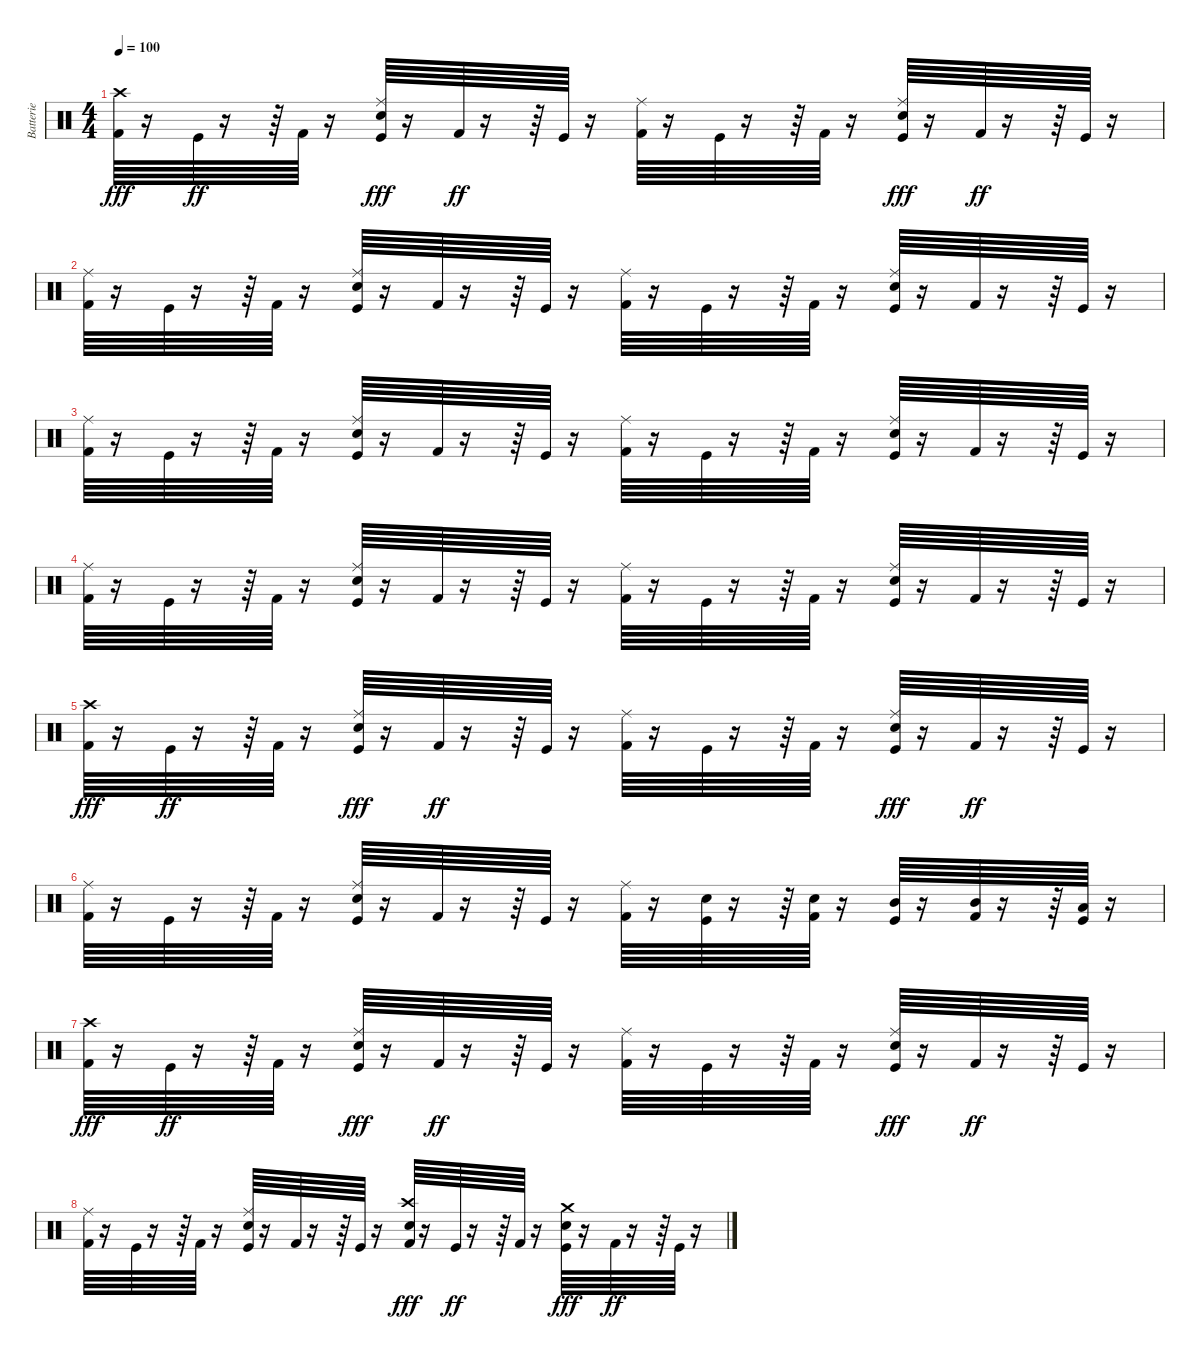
\track ("Batterie" "Batterie") {instrument percussion}
\staff {score}
\articulation defaults
\ts (4 4)
\tempo 100
\clef neutral
\ks c
("Kick (hit) 2" "Crash high (hit)").64{dy fff} r.16 "Kick (hit)".64{dy ff} r.16 r.64 "Kick (hit) 2".64 r.16 ("Kick (hit)" "Ride (middle)" "Electric Snare (hit)").64{dy fff} r.16 "Kick (hit) 2".64{dy ff} r.16 r.64 "Kick (hit)".64 r.16 ("Kick (hit) 2" "Ride (middle)").64 r.16 "Kick (hit)".64 r.16 r.64 "Kick (hit) 2".64 r.16 ("Kick (hit)" "Ride (middle)" "Electric Snare (hit)").64{dy fff} r.16 "Kick (hit) 2".64{dy ff} r.16 r.64 "Kick (hit)".64 r.16 |
("Kick (hit) 2" "Ride (middle)").64 r.16 "Kick (hit)".64 r.16 r.64 "Kick (hit) 2".64 r.16 ("Kick (hit)" "Electric Snare (hit)" "Ride (middle)").64 r.16 "Kick (hit) 2".64 r.16 r.64 "Kick (hit)".64 r.16 ("Kick (hit) 2" "Ride (middle)").64 r.16 "Kick (hit)".64 r.16 r.64 "Kick (hit) 2".64 r.16 ("Kick (hit)" "Electric Snare (hit)" "Ride (middle)").64 r.16 "Kick (hit) 2".64 r.16 r.64 "Kick (hit)".64 r.16 |
("Kick (hit) 2" "Ride (middle)").64 r.16 "Kick (hit)".64 r.16 r.64 "Kick (hit) 2".64 r.16 ("Kick (hit)" "Electric Snare (hit)" "Ride (middle)").64 r.16 "Kick (hit) 2".64 r.16 r.64 "Kick (hit)".64 r.16 ("Kick (hit) 2" "Ride (middle)").64 r.16 "Kick (hit)".64 r.16 r.64 "Kick (hit) 2".64 r.16 ("Kick (hit)" "Electric Snare (hit)" "Ride (middle)").64 r.16 "Kick (hit) 2".64 r.16 r.64 "Kick (hit)".64 r.16 |
("Kick (hit) 2" "Ride (middle)").64 r.16 "Kick (hit)".64 r.16 r.64 "Kick (hit) 2".64 r.16 ("Kick (hit)" "Electric Snare (hit)" "Ride (middle)").64 r.16 "Kick (hit) 2".64 r.16 r.64 "Kick (hit)".64 r.16 ("Kick (hit) 2" "Ride (middle)").64 r.16 "Kick (hit)".64 r.16 r.64 "Kick (hit) 2".64 r.16 ("Kick (hit)" "Electric Snare (hit)" "Ride (middle)").64 r.16 "Kick (hit) 2".64 r.16 r.64 "Kick (hit)".64 r.16 |
("Kick (hit) 2" "Crash high (hit)").64{dy fff} r.16 "Kick (hit)".64{dy ff} r.16 r.64 "Kick (hit) 2".64 r.16 ("Kick (hit)" "Ride (middle)" "Electric Snare (hit)").64{dy fff} r.16 "Kick (hit) 2".64{dy ff} r.16 r.64 "Kick (hit)".64 r.16 ("Kick (hit) 2" "Ride (middle)").64 r.16 "Kick (hit)".64 r.16 r.64 "Kick (hit) 2".64 r.16 ("Kick (hit)" "Ride (middle)" "Electric Snare (hit)").64{dy fff} r.16 "Kick (hit) 2".64{dy ff} r.16 r.64 "Kick (hit)".64 r.16 |
("Kick (hit) 2" "Ride (middle)").64 r.16 "Kick (hit)".64 r.16 r.64 "Kick (hit) 2".64 r.16 ("Kick (hit)" "Electric Snare (hit)" "Ride (middle)").64 r.16 "Kick (hit) 2".64 r.16 r.64 "Kick (hit)".64 r.16 ("Kick (hit) 2" "Ride (middle)").64 r.16 ("Kick (hit)" "Electric Snare (hit)").64 r.16 r.64 ("Kick (hit) 2" "Electric Snare (hit)").64 r.16 ("Kick (hit)" "Mid Tom (hit)").64 r.16 ("Kick (hit) 2" "Mid Tom (hit)").64 r.16 r.64 ("Kick (hit)" "Low Tom (hit)").64 r.16 |
("Kick (hit) 2" "Crash high (hit)").64{dy fff} r.16 "Kick (hit)".64{dy ff} r.16 r.64 "Kick (hit) 2".64 r.16 ("Kick (hit)" "Ride (middle)" "Electric Snare (hit)").64{dy fff} r.16 "Kick (hit) 2".64{dy ff} r.16 r.64 "Kick (hit)".64 r.16 ("Kick (hit) 2" "Ride (middle)").64 r.16 "Kick (hit)".64 r.16 r.64 "Kick (hit) 2".64 r.16 ("Kick (hit)" "Ride (middle)" "Electric Snare (hit)").64{dy fff} r.16 "Kick (hit) 2".64{dy ff} r.16 r.64 "Kick (hit)".64 r.16 |
("Kick (hit) 2" "Ride (middle)").64 r.16 "Kick (hit)".64 r.16 r.64 "Kick (hit) 2".64 r.16 ("Kick (hit)" "Electric Snare (hit)" "Ride (middle)").64 r.16 "Kick (hit) 2".64 r.16 r.64 "Kick (hit)".64 r.16 ("Kick (hit) 2" "Electric Snare (hit)" "Crash high (hit)").64{dy fff} r.16 "Kick (hit)".64{dy ff} r.16 r.64 "Kick (hit) 2".64 r.16 ("Kick (hit)" "Electric Snare (hit)" "Crash medium (hit)").64{dy fff} r.16 "Kick (hit) 2".64{dy ff} r.16 r.64 "Kick (hit)".64 r.16
